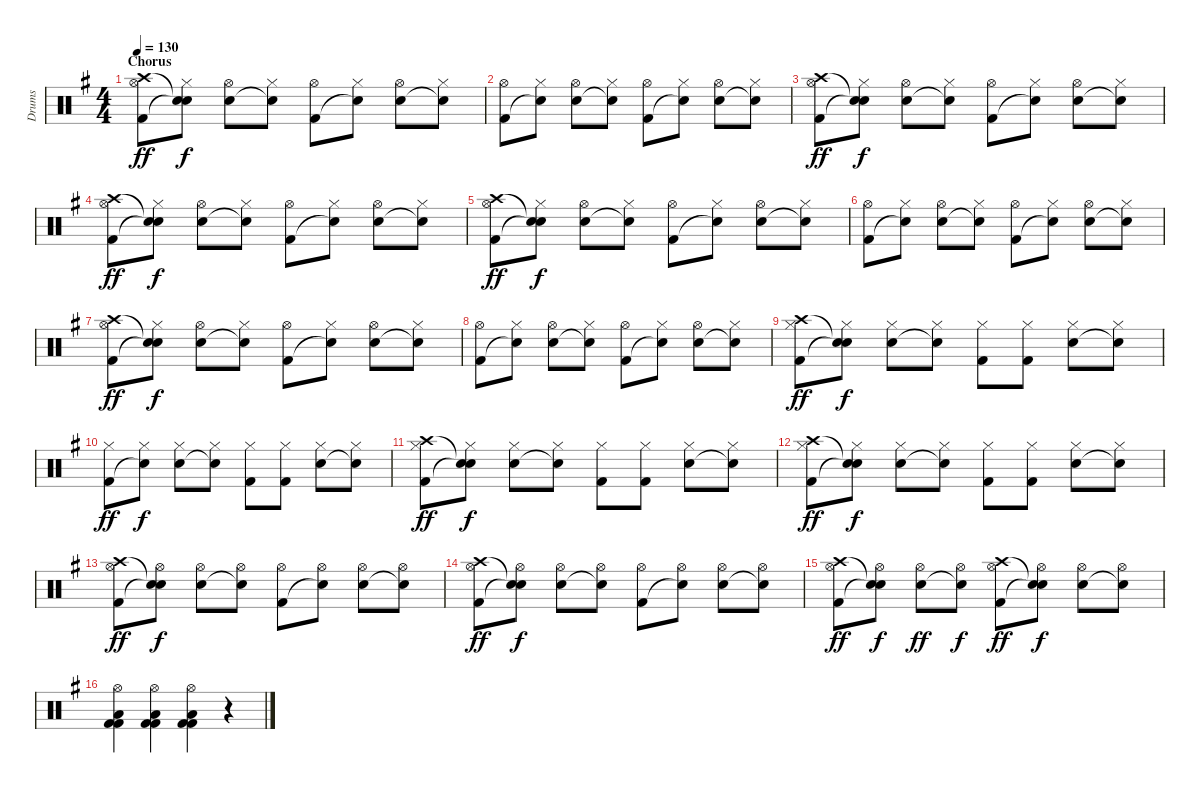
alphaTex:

\track ("Drums" "Drums") {instrument percussion}
\staff {score}
\articulation defaults
\ts (4 4)
\section ("" "Chorus")
\tempo 130
\clef neutral
\ks g
("Hi-Hat (open)" "Crash high (hit)" "Kick (hit) 2").8{dy ff} ("Hi-Hat (closed)" "Snare (hit)"{t} "Snare (hit)"{t}).8{dy f} ("Hi-Hat (open)" "Electric Snare (hit)").8 ("Hi-Hat (closed)" "Snare (hit)"{t}).8 ("Hi-Hat (open)" "Kick (hit) 2").8 ("Hi-Hat (closed)" "Snare (hit)"{t}).8 ("Hi-Hat (open)" "Electric Snare (hit)").8 ("Hi-Hat (closed)" "Snare (hit)"{t}).8 |
("Hi-Hat (open)" "Kick (hit) 2").8 ("Hi-Hat (closed)" "Snare (hit)"{t}).8 ("Hi-Hat (open)" "Electric Snare (hit)").8 ("Hi-Hat (closed)" "Snare (hit)"{t}).8 ("Hi-Hat (open)" "Kick (hit) 2").8 ("Hi-Hat (closed)" "Snare (hit)"{t}).8 ("Hi-Hat (open)" "Electric Snare (hit)").8 ("Hi-Hat (closed)" "Snare (hit)"{t}).8 |
("Hi-Hat (open)" "Crash high (hit)" "Kick (hit) 2").8{dy ff} ("Hi-Hat (closed)" "Snare (hit)"{t} "Snare (hit)"{t}).8{dy f} ("Hi-Hat (open)" "Electric Snare (hit)").8 ("Hi-Hat (closed)" "Snare (hit)"{t}).8 ("Hi-Hat (open)" "Kick (hit) 2").8 ("Hi-Hat (closed)" "Snare (hit)"{t}).8 ("Hi-Hat (open)" "Electric Snare (hit)").8 ("Hi-Hat (closed)" "Snare (hit)"{t}).8 |
("Hi-Hat (open)" "Crash high (hit)" "Kick (hit) 2").8{dy ff} ("Hi-Hat (closed)" "Snare (hit)"{t} "Snare (hit)"{t}).8{dy f} ("Hi-Hat (open)" "Electric Snare (hit)").8 ("Hi-Hat (closed)" "Snare (hit)"{t}).8 ("Hi-Hat (open)" "Kick (hit) 2").8 ("Hi-Hat (closed)" "Snare (hit)"{t}).8 ("Hi-Hat (open)" "Electric Snare (hit)").8 ("Hi-Hat (closed)" "Snare (hit)"{t}).8 |
("Hi-Hat (open)" "Crash high (hit)" "Kick (hit) 2").8{dy ff} ("Hi-Hat (closed)" "Snare (hit)"{t} "Snare (hit)"{t}).8{dy f} ("Hi-Hat (open)" "Electric Snare (hit)").8 ("Hi-Hat (closed)" "Snare (hit)"{t}).8 ("Hi-Hat (open)" "Kick (hit) 2").8 ("Hi-Hat (closed)" "Snare (hit)"{t}).8 ("Hi-Hat (open)" "Electric Snare (hit)").8 ("Hi-Hat (closed)" "Snare (hit)"{t}).8 |
("Hi-Hat (open)" "Kick (hit) 2").8 ("Hi-Hat (closed)" "Snare (hit)"{t}).8 ("Hi-Hat (open)" "Electric Snare (hit)").8 ("Hi-Hat (closed)" "Snare (hit)"{t}).8 ("Hi-Hat (open)" "Kick (hit) 2").8 ("Hi-Hat (closed)" "Snare (hit)"{t}).8 ("Hi-Hat (open)" "Electric Snare (hit)").8 ("Hi-Hat (closed)" "Snare (hit)"{t}).8 |
("Hi-Hat (open)" "Crash high (hit)" "Kick (hit) 2").8{dy ff} ("Hi-Hat (closed)" "Snare (hit)"{t} "Snare (hit)"{t}).8{dy f} ("Hi-Hat (open)" "Electric Snare (hit)").8 ("Hi-Hat (closed)" "Snare (hit)"{t}).8 ("Hi-Hat (open)" "Kick (hit) 2").8 ("Hi-Hat (closed)" "Snare (hit)"{t}).8 ("Hi-Hat (open)" "Electric Snare (hit)").8 ("Hi-Hat (closed)" "Snare (hit)"{t}).8 |
("Hi-Hat (open)" "Kick (hit) 2").8 ("Hi-Hat (closed)" "Snare (hit)"{t}).8 ("Hi-Hat (open)" "Electric Snare (hit)").8 ("Hi-Hat (closed)" "Snare (hit)"{t}).8 ("Hi-Hat (open)" "Kick (hit) 2").8 ("Hi-Hat (closed)" "Snare (hit)"{t}).8 ("Hi-Hat (open)" "Electric Snare (hit)").8 ("Hi-Hat (closed)" "Snare (hit)"{t}).8 |
("Hi-Hat (closed)" "Crash high (hit)" "Kick (hit) 2").8{dy ff} ("Hi-Hat (closed)" "Snare (hit)"{t} "Snare (hit)"{t}).8{dy f} ("Hi-Hat (closed)" "Electric Snare (hit)").8 ("Hi-Hat (closed)" "Snare (hit)"{t}).8 ("Hi-Hat (closed)" "Kick (hit) 2").8 ("Hi-Hat (closed)" "Kick (hit) 2").8 ("Hi-Hat (closed)" "Electric Snare (hit)").8 ("Hi-Hat (closed)" "Snare (hit)"{t}).8 |
("Hi-Hat (closed)" "Kick (hit) 2").8{dy ff} ("Hi-Hat (closed)" "Snare (hit)"{t}).8{dy f} ("Hi-Hat (closed)" "Electric Snare (hit)").8 ("Hi-Hat (closed)" "Snare (hit)"{t}).8 ("Hi-Hat (closed)" "Kick (hit) 2").8 ("Hi-Hat (closed)" "Kick (hit) 2").8 ("Hi-Hat (closed)" "Electric Snare (hit)").8 ("Hi-Hat (closed)" "Snare (hit)"{t}).8 |
("Hi-Hat (closed)" "Crash high (hit)" "Kick (hit) 2").8{dy ff} ("Hi-Hat (closed)" "Snare (hit)"{t} "Snare (hit)"{t}).8{dy f} ("Hi-Hat (closed)" "Electric Snare (hit)").8 ("Hi-Hat (closed)" "Snare (hit)"{t}).8 ("Hi-Hat (closed)" "Kick (hit) 2").8 ("Hi-Hat (closed)" "Kick (hit) 2").8 ("Hi-Hat (closed)" "Electric Snare (hit)").8 ("Hi-Hat (closed)" "Snare (hit)"{t}).8 |
("Hi-Hat (closed)" "Crash high (hit)" "Kick (hit) 2").8{dy ff} ("Hi-Hat (closed)" "Snare (hit)"{t} "Snare (hit)"{t}).8{dy f} ("Hi-Hat (closed)" "Electric Snare (hit)").8 ("Hi-Hat (closed)" "Snare (hit)"{t}).8 ("Hi-Hat (closed)" "Kick (hit) 2").8 ("Hi-Hat (closed)" "Kick (hit) 2").8 ("Hi-Hat (closed)" "Electric Snare (hit)").8 ("Hi-Hat (closed)" "Snare (hit)"{t}).8 |
("Hi-Hat (open)" "Crash high (hit)" "Kick (hit) 2").8{dy ff} ("Hi-Hat (open)" "Snare (hit)"{t} "Snare (hit)"{t}).8{dy f} ("Hi-Hat (open)" "Electric Snare (hit)").8 ("Hi-Hat (open)" "Snare (hit)"{t}).8 ("Hi-Hat (open)" "Kick (hit) 2").8 ("Hi-Hat (open)" "Snare (hit)"{t}).8 ("Hi-Hat (open)" "Electric Snare (hit)").8 ("Hi-Hat (open)" "Snare (hit)"{t}).8 |
("Hi-Hat (open)" "Crash high (hit)" "Kick (hit) 2").8{dy ff} ("Hi-Hat (open)" "Snare (hit)"{t} "Snare (hit)"{t}).8{dy f} ("Hi-Hat (open)" "Electric Snare (hit)").8 ("Hi-Hat (open)" "Snare (hit)"{t}).8 ("Hi-Hat (open)" "Kick (hit) 2").8 ("Hi-Hat (open)" "Snare (hit)"{t}).8 ("Hi-Hat (open)" "Electric Snare (hit)").8 ("Hi-Hat (open)" "Snare (hit)"{t}).8 |
("Hi-Hat (open)" "Crash high (hit)" "Kick (hit) 2").8{dy ff} ("Hi-Hat (open)" "Snare (hit)"{t} "Snare (hit)"{t}).8{dy f} ("Hi-Hat (open)" "Electric Snare (hit)").8{dy ff} ("Hi-Hat (open)" "Snare (hit)"{t}).8{dy f} ("Hi-Hat (open)" "Crash high (hit)" "Kick (hit) 2").8{dy ff} ("Hi-Hat (open)" "Snare (hit)"{t} "Snare (hit)"{t}).8{dy f} ("Hi-Hat (open)" "Electric Snare (hit)").8 ("Hi-Hat (open)" "Snare (hit)"{t}).8 |
("Low Floor Tom (hit)" "Hi-Hat (open)" "Kick (hit) 2" "Kick (hit) 2").4 ("Low Floor Tom (hit)" "Hi-Hat (open)" "Kick (hit) 2" "Kick (hit) 2").4 ("Low Floor Tom (hit)" "Hi-Hat (open)" "Kick (hit) 2" "Kick (hit) 2").4 r.4
